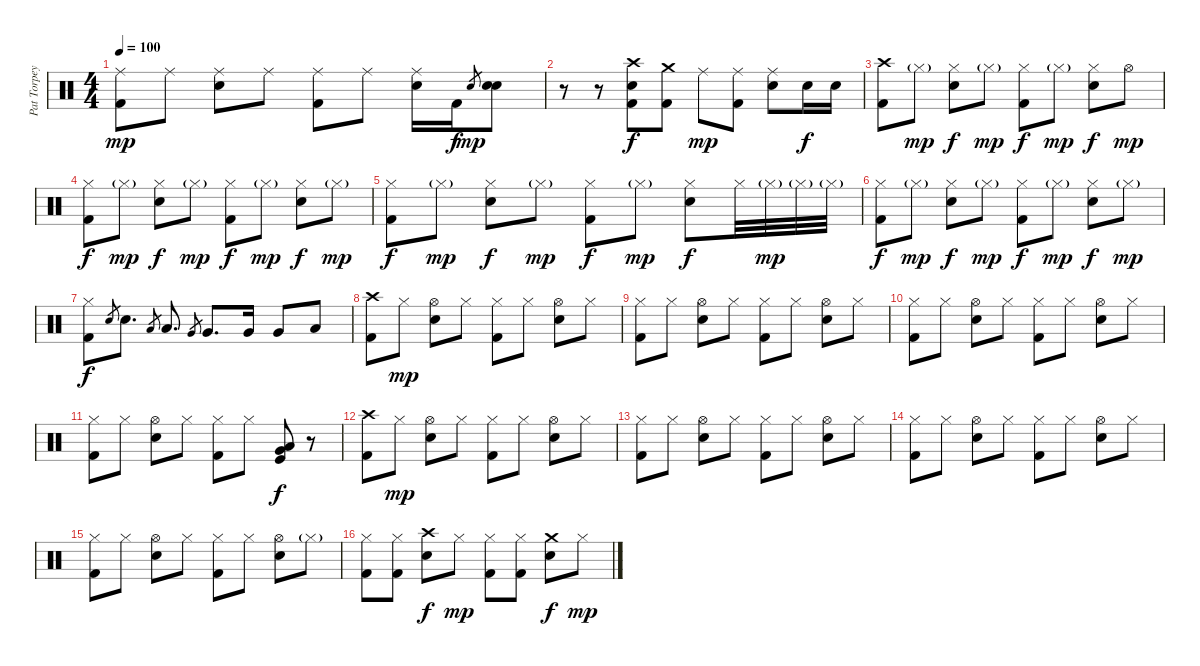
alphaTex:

\track ("Pat Torpey" "Pat Torpey") {instrument percussion}
\staff {score}
\articulation defaults
\ts (4 4)
\tempo 100
\clef neutral
\ks c
("Ride (middle)" "Kick (hit) 2").8{dy mp} "Ride (middle)".8 ("Ride (middle)" "Electric Snare (hit)").8 "Ride (middle)".8 ("Ride (middle)" "Kick (hit) 2").8 "Ride (middle)".8 ("Ride (middle)" "Electric Snare (hit)").16 "Kick (hit) 2".16{dy f} "Electric Snare (hit)".8{gr dy mp} ("Electric Snare (hit)" "Electric Snare (hit)").8 |
r.8 r.8 ("Crash high (hit)" "Electric Snare (hit)" "Kick (hit) 2").8{dy f} ("Crash medium (hit)" "Kick (hit) 2").8 "Ride (middle)".8{dy mp} ("Ride (middle)" "Kick (hit) 2").8 ("Ride (middle)" "Electric Snare (hit)").8 "Electric Snare (hit)".16{dy f} "Electric Snare (hit)".16 |
("Crash high (hit)" "Kick (hit) 2").8 "Hi-Hat (closed)"{g}.8{dy mp} ("Hi-Hat (closed)" "Electric Snare (hit)").8{dy f} "Hi-Hat (closed)"{g}.8{dy mp} ("Hi-Hat (closed)" "Kick (hit) 2").8{dy f} "Hi-Hat (closed)"{g}.8{dy mp} ("Hi-Hat (closed)" "Electric Snare (hit)").8{dy f} "Hi-Hat (open)".8{dy mp} |
("Hi-Hat (closed)" "Kick (hit) 2").8{dy f} "Hi-Hat (closed)"{g}.8{dy mp} ("Hi-Hat (closed)" "Electric Snare (hit)").8{dy f} "Hi-Hat (closed)"{g}.8{dy mp} ("Hi-Hat (closed)" "Kick (hit) 2").8{dy f} "Hi-Hat (closed)"{g}.8{dy mp} ("Hi-Hat (closed)" "Electric Snare (hit)").8{dy f} "Hi-Hat (closed)"{g}.8{dy mp} |
("Hi-Hat (closed)" "Kick (hit) 2").8{dy f} "Hi-Hat (closed)"{g}.8{dy mp} ("Hi-Hat (closed)" "Electric Snare (hit)").8{dy f} "Hi-Hat (closed)"{g}.8{dy mp} ("Hi-Hat (closed)" "Kick (hit) 2").8{dy f} "Hi-Hat (closed)"{g}.8{dy mp} ("Hi-Hat (closed)" "Electric Snare (hit)").8{dy f} "Hi-Hat (closed)".32 "Hi-Hat (closed)"{g}.32{dy mp} "Hi-Hat (closed)"{g}.32 "Hi-Hat (closed)"{g}.32 |
("Hi-Hat (closed)" "Kick (hit) 2").8{dy f} "Hi-Hat (closed)"{g}.8{dy mp} ("Hi-Hat (closed)" "Electric Snare (hit)").8{dy f} "Hi-Hat (closed)"{g}.8{dy mp} ("Hi-Hat (closed)" "Kick (hit) 2").8{dy f} "Hi-Hat (closed)"{g}.8{dy mp} ("Hi-Hat (closed)" "Electric Snare (hit)").8{dy f} "Hi-Hat (closed)"{g}.8{dy mp} |
("Hi-Hat (closed)" "Kick (hit) 2").8{dy f} "Electric Snare (hit)".8{gr} "Electric Snare (hit)".8{d} "Low Tom (hit)".8{gr} "Low Tom (hit)".8{d} "Very Low Tom (hit)".8{gr} "Very Low Tom (hit)".8{d} "Very Low Tom (hit)".16 "Very Low Tom (hit)".8 "Low Floor Tom (hit)".8 |
("Crash high (hit)" "Kick (hit) 2").8 "Hi-Hat (closed)".8{dy mp} ("Hi-Hat (open)" "Electric Snare (hit)").8 "Hi-Hat (closed)".8 ("Hi-Hat (closed)" "Kick (hit) 2").8 "Hi-Hat (closed)".8 ("Hi-Hat (open)" "Electric Snare (hit)").8 "Hi-Hat (closed)".8 |
("Hi-Hat (closed)" "Kick (hit) 2").8 "Hi-Hat (closed)".8 ("Hi-Hat (open)" "Electric Snare (hit)").8 "Hi-Hat (closed)".8 ("Hi-Hat (closed)" "Kick (hit) 2").8 "Hi-Hat (closed)".8 ("Hi-Hat (open)" "Electric Snare (hit)").8 "Hi-Hat (closed)".8 |
("Hi-Hat (closed)" "Kick (hit) 2").8 "Hi-Hat (closed)".8 ("Hi-Hat (open)" "Electric Snare (hit)").8 "Hi-Hat (closed)".8 ("Hi-Hat (closed)" "Kick (hit) 2").8 "Hi-Hat (closed)".8 ("Hi-Hat (open)" "Electric Snare (hit)").8 "Hi-Hat (closed)".8 |
("Hi-Hat (closed)" "Kick (hit) 2").8 "Hi-Hat (closed)".8 ("Hi-Hat (open)" "Electric Snare (hit)").8 "Hi-Hat (closed)".8 ("Hi-Hat (closed)" "Kick (hit) 2").8 "Hi-Hat (closed)".8 ("Low Floor Tom (hit)" "Very Low Tom (hit)" "Kick (hit)").8{dy f} r.8 |
("Crash high (hit)" "Kick (hit) 2").8 "Hi-Hat (closed)".8{dy mp} ("Hi-Hat (open)" "Electric Snare (hit)").8 "Hi-Hat (closed)".8 ("Hi-Hat (closed)" "Kick (hit) 2").8 "Hi-Hat (closed)".8 ("Hi-Hat (open)" "Electric Snare (hit)").8 "Hi-Hat (closed)".8 |
("Hi-Hat (closed)" "Kick (hit) 2").8 "Hi-Hat (closed)".8 ("Hi-Hat (open)" "Electric Snare (hit)").8 "Hi-Hat (closed)".8 ("Hi-Hat (closed)" "Kick (hit) 2").8 "Hi-Hat (closed)".8 ("Hi-Hat (open)" "Electric Snare (hit)").8 "Hi-Hat (closed)".8 |
("Hi-Hat (closed)" "Kick (hit) 2").8 "Hi-Hat (closed)".8 ("Hi-Hat (open)" "Electric Snare (hit)").8 "Hi-Hat (closed)".8 ("Hi-Hat (closed)" "Kick (hit) 2").8 "Hi-Hat (closed)".8 ("Hi-Hat (open)" "Electric Snare (hit)").8 "Hi-Hat (closed)".8 |
("Hi-Hat (closed)" "Kick (hit) 2").8 "Hi-Hat (closed)".8 ("Hi-Hat (open)" "Electric Snare (hit)").8 "Hi-Hat (closed)".8 ("Hi-Hat (closed)" "Kick (hit) 2").8 "Hi-Hat (closed)".8 ("Hi-Hat (open)" "Electric Snare (hit)").8 "Hi-Hat (closed)"{g}.8 |
("Hi-Hat (closed)" "Kick (hit) 2").8 ("Hi-Hat (closed)" "Kick (hit) 2").8 ("Crash high (hit)" "Electric Snare (hit)").8{dy f} "Hi-Hat (closed)".8{dy mp} ("Hi-Hat (closed)" "Kick (hit) 2").8 ("Hi-Hat (closed)" "Kick (hit) 2").8 ("Crash medium (hit)" "Electric Snare (hit)").8{dy f} "Hi-Hat (closed)".8{dy mp}
